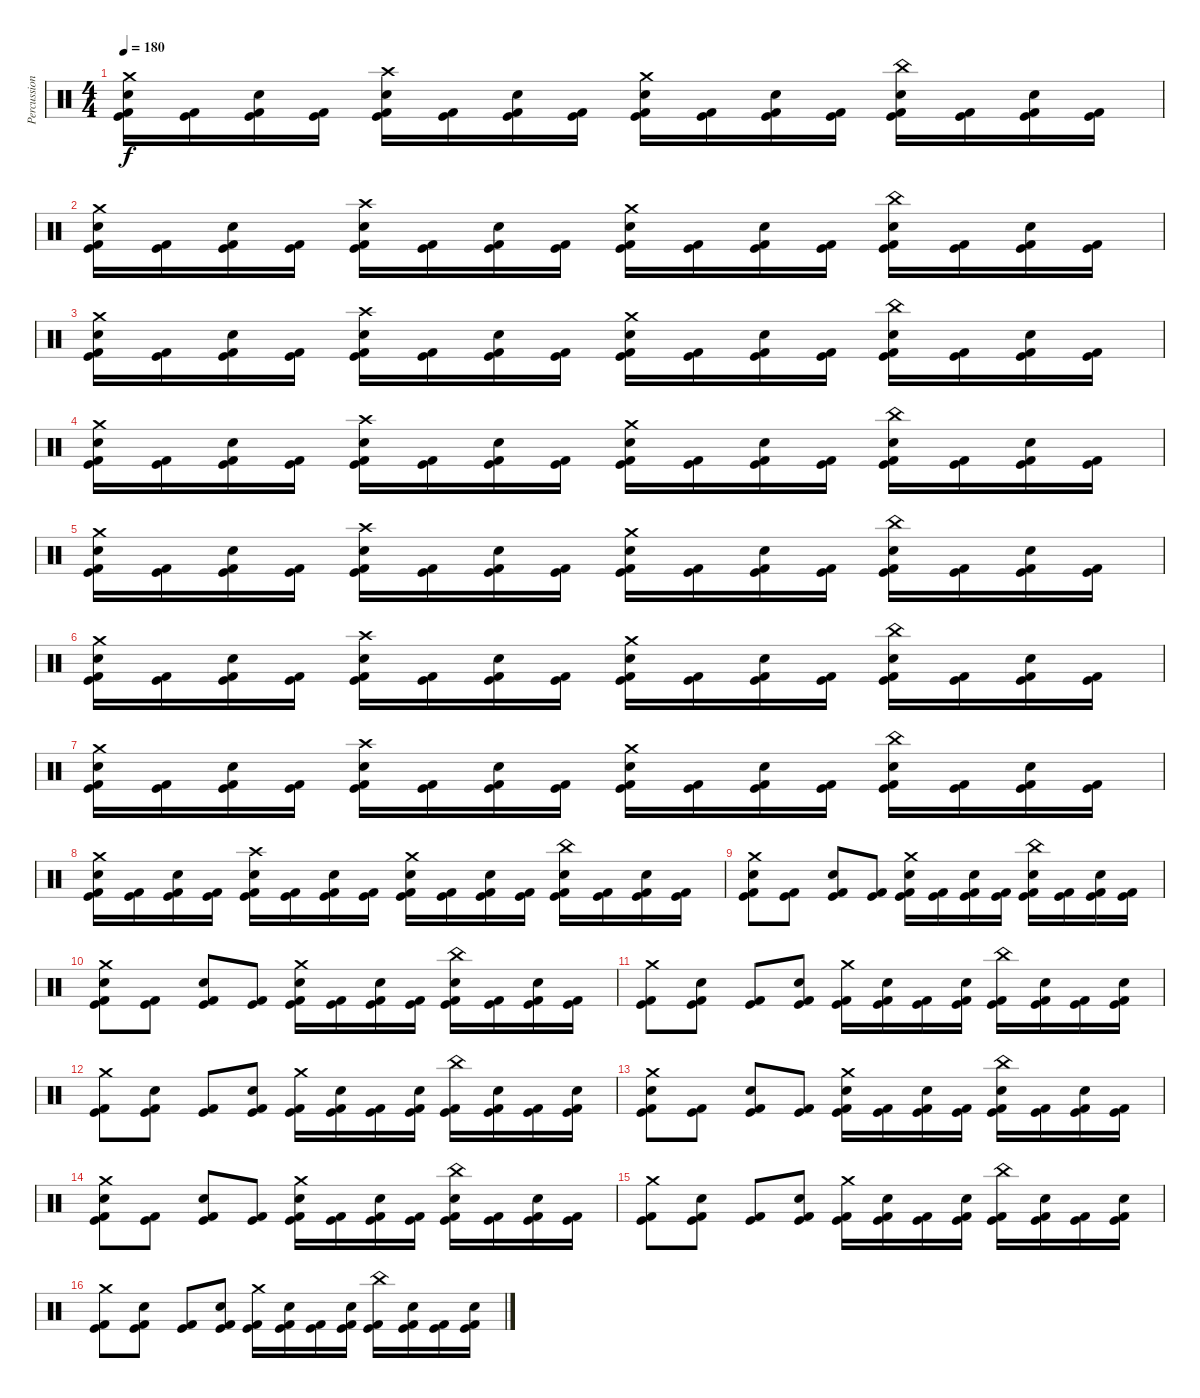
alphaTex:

\track ("Percussion" "Percussion") {instrument percussion}
\staff {score}
\articulation defaults
\ts (4 4)
\tempo 180
\clef neutral
\ks c
("Crash medium (hit)" "Electric Snare (hit)" "Kick (hit)" "Kick (hit) 2").16{dy f} ("Kick (hit)" "Kick (hit) 2").16 ("Electric Snare (hit)" "Kick (hit)" "Kick (hit) 2").16 ("Kick (hit)" "Kick (hit) 2").16 ("Crash high (hit)" "Electric Snare (hit)" "Kick (hit)" "Kick (hit) 2").16 ("Kick (hit)" "Kick (hit) 2").16 ("Electric Snare (hit)" "Kick (hit)" "Kick (hit) 2").16 ("Kick (hit)" "Kick (hit) 2").16 ("Crash medium (hit)" "Electric Snare (hit)" "Kick (hit)" "Kick (hit) 2").16 ("Kick (hit)" "Kick (hit) 2").16 ("Electric Snare (hit)" "Kick (hit)" "Kick (hit) 2").16 ("Kick (hit)" "Kick (hit) 2").16 ("China (hit)" "Electric Snare (hit)" "Kick (hit)" "Kick (hit) 2").16 ("Kick (hit)" "Kick (hit) 2").16 ("Electric Snare (hit)" "Kick (hit)" "Kick (hit) 2").16 ("Kick (hit)" "Kick (hit) 2").16 |
("Crash medium (hit)" "Electric Snare (hit)" "Kick (hit)" "Kick (hit) 2").16 ("Kick (hit)" "Kick (hit) 2").16 ("Electric Snare (hit)" "Kick (hit)" "Kick (hit) 2").16 ("Kick (hit)" "Kick (hit) 2").16 ("Crash high (hit)" "Electric Snare (hit)" "Kick (hit)" "Kick (hit) 2").16 ("Kick (hit)" "Kick (hit) 2").16 ("Electric Snare (hit)" "Kick (hit)" "Kick (hit) 2").16 ("Kick (hit)" "Kick (hit) 2").16 ("Crash medium (hit)" "Electric Snare (hit)" "Kick (hit)" "Kick (hit) 2").16 ("Kick (hit)" "Kick (hit) 2").16 ("Electric Snare (hit)" "Kick (hit)" "Kick (hit) 2").16 ("Kick (hit)" "Kick (hit) 2").16 ("China (hit)" "Electric Snare (hit)" "Kick (hit)" "Kick (hit) 2").16 ("Kick (hit)" "Kick (hit) 2").16 ("Electric Snare (hit)" "Kick (hit)" "Kick (hit) 2").16 ("Kick (hit)" "Kick (hit) 2").16 |
("Crash medium (hit)" "Electric Snare (hit)" "Kick (hit)" "Kick (hit) 2").16 ("Kick (hit)" "Kick (hit) 2").16 ("Electric Snare (hit)" "Kick (hit)" "Kick (hit) 2").16 ("Kick (hit)" "Kick (hit) 2").16 ("Crash high (hit)" "Electric Snare (hit)" "Kick (hit)" "Kick (hit) 2").16 ("Kick (hit)" "Kick (hit) 2").16 ("Electric Snare (hit)" "Kick (hit)" "Kick (hit) 2").16 ("Kick (hit)" "Kick (hit) 2").16 ("Crash medium (hit)" "Electric Snare (hit)" "Kick (hit)" "Kick (hit) 2").16 ("Kick (hit)" "Kick (hit) 2").16 ("Electric Snare (hit)" "Kick (hit)" "Kick (hit) 2").16 ("Kick (hit)" "Kick (hit) 2").16 ("China (hit)" "Electric Snare (hit)" "Kick (hit)" "Kick (hit) 2").16 ("Kick (hit)" "Kick (hit) 2").16 ("Electric Snare (hit)" "Kick (hit)" "Kick (hit) 2").16 ("Kick (hit)" "Kick (hit) 2").16 |
("Crash medium (hit)" "Electric Snare (hit)" "Kick (hit)" "Kick (hit) 2").16 ("Kick (hit)" "Kick (hit) 2").16 ("Electric Snare (hit)" "Kick (hit)" "Kick (hit) 2").16 ("Kick (hit)" "Kick (hit) 2").16 ("Crash high (hit)" "Electric Snare (hit)" "Kick (hit)" "Kick (hit) 2").16 ("Kick (hit)" "Kick (hit) 2").16 ("Electric Snare (hit)" "Kick (hit)" "Kick (hit) 2").16 ("Kick (hit)" "Kick (hit) 2").16 ("Crash medium (hit)" "Electric Snare (hit)" "Kick (hit)" "Kick (hit) 2").16 ("Kick (hit)" "Kick (hit) 2").16 ("Electric Snare (hit)" "Kick (hit)" "Kick (hit) 2").16 ("Kick (hit)" "Kick (hit) 2").16 ("China (hit)" "Electric Snare (hit)" "Kick (hit)" "Kick (hit) 2").16 ("Kick (hit)" "Kick (hit) 2").16 ("Electric Snare (hit)" "Kick (hit)" "Kick (hit) 2").16 ("Kick (hit)" "Kick (hit) 2").16 |
("Crash medium (hit)" "Electric Snare (hit)" "Kick (hit)" "Kick (hit) 2").16 ("Kick (hit)" "Kick (hit) 2").16 ("Electric Snare (hit)" "Kick (hit)" "Kick (hit) 2").16 ("Kick (hit)" "Kick (hit) 2").16 ("Crash high (hit)" "Electric Snare (hit)" "Kick (hit)" "Kick (hit) 2").16 ("Kick (hit)" "Kick (hit) 2").16 ("Electric Snare (hit)" "Kick (hit)" "Kick (hit) 2").16 ("Kick (hit)" "Kick (hit) 2").16 ("Crash medium (hit)" "Electric Snare (hit)" "Kick (hit)" "Kick (hit) 2").16 ("Kick (hit)" "Kick (hit) 2").16 ("Electric Snare (hit)" "Kick (hit)" "Kick (hit) 2").16 ("Kick (hit)" "Kick (hit) 2").16 ("China (hit)" "Electric Snare (hit)" "Kick (hit)" "Kick (hit) 2").16 ("Kick (hit)" "Kick (hit) 2").16 ("Electric Snare (hit)" "Kick (hit)" "Kick (hit) 2").16 ("Kick (hit)" "Kick (hit) 2").16 |
("Crash medium (hit)" "Electric Snare (hit)" "Kick (hit)" "Kick (hit) 2").16 ("Kick (hit)" "Kick (hit) 2").16 ("Electric Snare (hit)" "Kick (hit)" "Kick (hit) 2").16 ("Kick (hit)" "Kick (hit) 2").16 ("Crash high (hit)" "Electric Snare (hit)" "Kick (hit)" "Kick (hit) 2").16 ("Kick (hit)" "Kick (hit) 2").16 ("Electric Snare (hit)" "Kick (hit)" "Kick (hit) 2").16 ("Kick (hit)" "Kick (hit) 2").16 ("Crash medium (hit)" "Electric Snare (hit)" "Kick (hit)" "Kick (hit) 2").16 ("Kick (hit)" "Kick (hit) 2").16 ("Electric Snare (hit)" "Kick (hit)" "Kick (hit) 2").16 ("Kick (hit)" "Kick (hit) 2").16 ("China (hit)" "Electric Snare (hit)" "Kick (hit)" "Kick (hit) 2").16 ("Kick (hit)" "Kick (hit) 2").16 ("Electric Snare (hit)" "Kick (hit)" "Kick (hit) 2").16 ("Kick (hit)" "Kick (hit) 2").16 |
("Crash medium (hit)" "Electric Snare (hit)" "Kick (hit)" "Kick (hit) 2").16 ("Kick (hit)" "Kick (hit) 2").16 ("Electric Snare (hit)" "Kick (hit)" "Kick (hit) 2").16 ("Kick (hit)" "Kick (hit) 2").16 ("Crash high (hit)" "Electric Snare (hit)" "Kick (hit)" "Kick (hit) 2").16 ("Kick (hit)" "Kick (hit) 2").16 ("Electric Snare (hit)" "Kick (hit)" "Kick (hit) 2").16 ("Kick (hit)" "Kick (hit) 2").16 ("Crash medium (hit)" "Electric Snare (hit)" "Kick (hit)" "Kick (hit) 2").16 ("Kick (hit)" "Kick (hit) 2").16 ("Electric Snare (hit)" "Kick (hit)" "Kick (hit) 2").16 ("Kick (hit)" "Kick (hit) 2").16 ("China (hit)" "Electric Snare (hit)" "Kick (hit)" "Kick (hit) 2").16 ("Kick (hit)" "Kick (hit) 2").16 ("Electric Snare (hit)" "Kick (hit)" "Kick (hit) 2").16 ("Kick (hit)" "Kick (hit) 2").16 |
("Crash medium (hit)" "Electric Snare (hit)" "Kick (hit)" "Kick (hit) 2").16 ("Kick (hit)" "Kick (hit) 2").16 ("Electric Snare (hit)" "Kick (hit)" "Kick (hit) 2").16 ("Kick (hit)" "Kick (hit) 2").16 ("Crash high (hit)" "Electric Snare (hit)" "Kick (hit)" "Kick (hit) 2").16 ("Kick (hit)" "Kick (hit) 2").16 ("Electric Snare (hit)" "Kick (hit)" "Kick (hit) 2").16 ("Kick (hit)" "Kick (hit) 2").16 ("Crash medium (hit)" "Electric Snare (hit)" "Kick (hit)" "Kick (hit) 2").16 ("Kick (hit)" "Kick (hit) 2").16 ("Electric Snare (hit)" "Kick (hit)" "Kick (hit) 2").16 ("Kick (hit)" "Kick (hit) 2").16 ("China (hit)" "Electric Snare (hit)" "Kick (hit)" "Kick (hit) 2").16 ("Kick (hit)" "Kick (hit) 2").16 ("Electric Snare (hit)" "Kick (hit)" "Kick (hit) 2").16 ("Kick (hit)" "Kick (hit) 2").16 |
("Crash medium (hit)" "Electric Snare (hit)" "Kick (hit)" "Kick (hit) 2").8 ("Kick (hit)" "Kick (hit) 2").8 ("Electric Snare (hit)" "Kick (hit)" "Kick (hit) 2").8 ("Kick (hit)" "Kick (hit) 2").8 ("Crash medium (hit)" "Electric Snare (hit)" "Kick (hit)" "Kick (hit) 2").16 ("Kick (hit)" "Kick (hit) 2").16 ("Electric Snare (hit)" "Kick (hit)" "Kick (hit) 2").16 ("Kick (hit)" "Kick (hit) 2").16 ("China (hit)" "Electric Snare (hit)" "Kick (hit)" "Kick (hit) 2").16 ("Kick (hit)" "Kick (hit) 2").16 ("Electric Snare (hit)" "Kick (hit)" "Kick (hit) 2").16 ("Kick (hit)" "Kick (hit) 2").16 |
("Crash medium (hit)" "Electric Snare (hit)" "Kick (hit)" "Kick (hit) 2").8 ("Kick (hit)" "Kick (hit) 2").8 ("Electric Snare (hit)" "Kick (hit)" "Kick (hit) 2").8 ("Kick (hit)" "Kick (hit) 2").8 ("Crash medium (hit)" "Electric Snare (hit)" "Kick (hit)" "Kick (hit) 2").16 ("Kick (hit)" "Kick (hit) 2").16 ("Electric Snare (hit)" "Kick (hit)" "Kick (hit) 2").16 ("Kick (hit)" "Kick (hit) 2").16 ("China (hit)" "Electric Snare (hit)" "Kick (hit)" "Kick (hit) 2").16 ("Kick (hit)" "Kick (hit) 2").16 ("Electric Snare (hit)" "Kick (hit)" "Kick (hit) 2").16 ("Kick (hit)" "Kick (hit) 2").16 |
("Crash medium (hit)" "Kick (hit)" "Kick (hit) 2").8 ("Electric Snare (hit)" "Kick (hit)" "Kick (hit) 2").8 ("Kick (hit)" "Kick (hit) 2").8 ("Electric Snare (hit)" "Kick (hit)" "Kick (hit) 2").8 ("Crash medium (hit)" "Kick (hit)" "Kick (hit) 2").16 ("Electric Snare (hit)" "Kick (hit)" "Kick (hit) 2").16 ("Kick (hit)" "Kick (hit) 2").16 ("Electric Snare (hit)" "Kick (hit)" "Kick (hit) 2").16 ("China (hit)" "Kick (hit)" "Kick (hit) 2").16 ("Electric Snare (hit)" "Kick (hit)" "Kick (hit) 2").16 ("Kick (hit)" "Kick (hit) 2").16 ("Electric Snare (hit)" "Kick (hit)" "Kick (hit) 2").16 |
("Crash medium (hit)" "Kick (hit)" "Kick (hit) 2").8 ("Electric Snare (hit)" "Kick (hit)" "Kick (hit) 2").8 ("Kick (hit)" "Kick (hit) 2").8 ("Electric Snare (hit)" "Kick (hit)" "Kick (hit) 2").8 ("Crash medium (hit)" "Kick (hit)" "Kick (hit) 2").16 ("Electric Snare (hit)" "Kick (hit)" "Kick (hit) 2").16 ("Kick (hit)" "Kick (hit) 2").16 ("Electric Snare (hit)" "Kick (hit)" "Kick (hit) 2").16 ("China (hit)" "Kick (hit)" "Kick (hit) 2").16 ("Electric Snare (hit)" "Kick (hit)" "Kick (hit) 2").16 ("Kick (hit)" "Kick (hit) 2").16 ("Electric Snare (hit)" "Kick (hit)" "Kick (hit) 2").16 |
("Crash medium (hit)" "Electric Snare (hit)" "Kick (hit)" "Kick (hit) 2").8 ("Kick (hit)" "Kick (hit) 2").8 ("Electric Snare (hit)" "Kick (hit)" "Kick (hit) 2").8 ("Kick (hit)" "Kick (hit) 2").8 ("Crash medium (hit)" "Electric Snare (hit)" "Kick (hit)" "Kick (hit) 2").16 ("Kick (hit)" "Kick (hit) 2").16 ("Electric Snare (hit)" "Kick (hit)" "Kick (hit) 2").16 ("Kick (hit)" "Kick (hit) 2").16 ("China (hit)" "Electric Snare (hit)" "Kick (hit)" "Kick (hit) 2").16 ("Kick (hit)" "Kick (hit) 2").16 ("Electric Snare (hit)" "Kick (hit)" "Kick (hit) 2").16 ("Kick (hit)" "Kick (hit) 2").16 |
("Crash medium (hit)" "Electric Snare (hit)" "Kick (hit)" "Kick (hit) 2").8 ("Kick (hit)" "Kick (hit) 2").8 ("Electric Snare (hit)" "Kick (hit)" "Kick (hit) 2").8 ("Kick (hit)" "Kick (hit) 2").8 ("Crash medium (hit)" "Electric Snare (hit)" "Kick (hit)" "Kick (hit) 2").16 ("Kick (hit)" "Kick (hit) 2").16 ("Electric Snare (hit)" "Kick (hit)" "Kick (hit) 2").16 ("Kick (hit)" "Kick (hit) 2").16 ("China (hit)" "Electric Snare (hit)" "Kick (hit)" "Kick (hit) 2").16 ("Kick (hit)" "Kick (hit) 2").16 ("Electric Snare (hit)" "Kick (hit)" "Kick (hit) 2").16 ("Kick (hit)" "Kick (hit) 2").16 |
("Crash medium (hit)" "Kick (hit)" "Kick (hit) 2").8 ("Electric Snare (hit)" "Kick (hit)" "Kick (hit) 2").8 ("Kick (hit)" "Kick (hit) 2").8 ("Electric Snare (hit)" "Kick (hit)" "Kick (hit) 2").8 ("Crash medium (hit)" "Kick (hit)" "Kick (hit) 2").16 ("Electric Snare (hit)" "Kick (hit)" "Kick (hit) 2").16 ("Kick (hit)" "Kick (hit) 2").16 ("Electric Snare (hit)" "Kick (hit)" "Kick (hit) 2").16 ("China (hit)" "Kick (hit)" "Kick (hit) 2").16 ("Electric Snare (hit)" "Kick (hit)" "Kick (hit) 2").16 ("Kick (hit)" "Kick (hit) 2").16 ("Electric Snare (hit)" "Kick (hit)" "Kick (hit) 2").16 |
("Crash medium (hit)" "Kick (hit)" "Kick (hit) 2").8 ("Electric Snare (hit)" "Kick (hit)" "Kick (hit) 2").8 ("Kick (hit)" "Kick (hit) 2").8 ("Electric Snare (hit)" "Kick (hit)" "Kick (hit) 2").8 ("Crash medium (hit)" "Kick (hit)" "Kick (hit) 2").16 ("Electric Snare (hit)" "Kick (hit)" "Kick (hit) 2").16 ("Kick (hit)" "Kick (hit) 2").16 ("Electric Snare (hit)" "Kick (hit)" "Kick (hit) 2").16 ("China (hit)" "Kick (hit)" "Kick (hit) 2").16 ("Electric Snare (hit)" "Kick (hit)" "Kick (hit) 2").16 ("Kick (hit)" "Kick (hit) 2").16 ("Electric Snare (hit)" "Kick (hit)" "Kick (hit) 2").16
